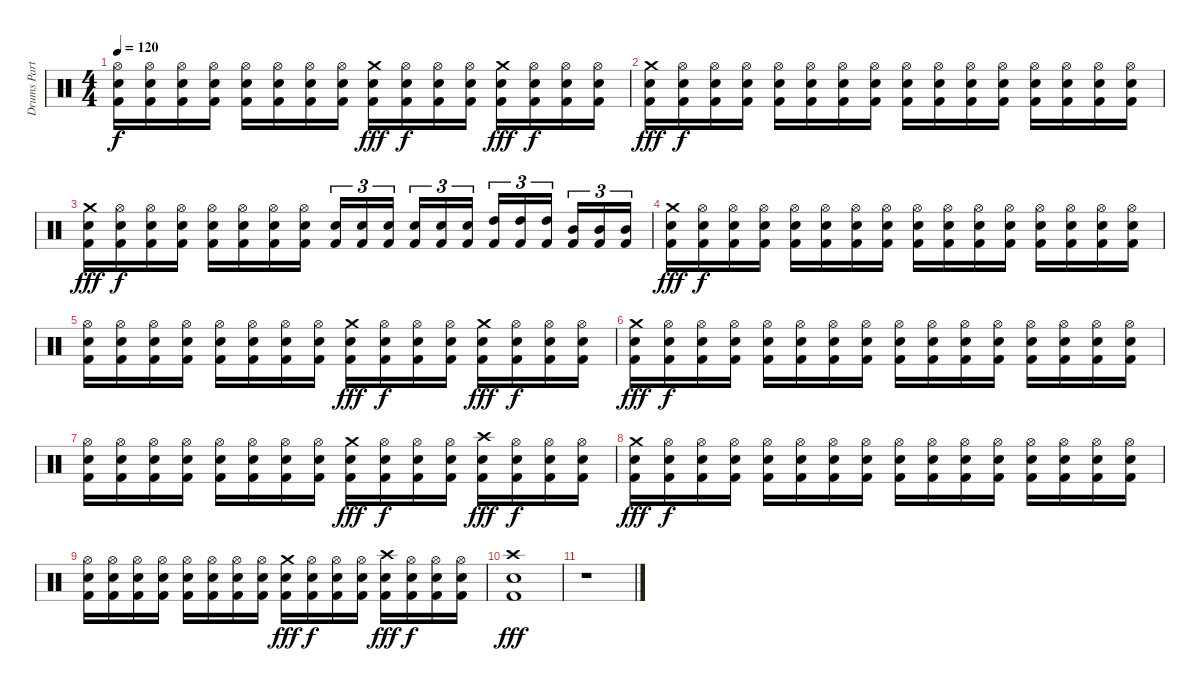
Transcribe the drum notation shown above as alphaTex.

\track ("Drums Part" "Drums Part") {instrument percussion}
\staff {score}
\articulation defaults
\ts (4 4)
\tempo 120
\clef neutral
\ks c
("Hi-Hat (open)" "Electric Snare (hit)" "Kick (hit) 2").16{dy f} ("Hi-Hat (open)" "Electric Snare (hit)" "Kick (hit) 2").16 ("Hi-Hat (open)" "Electric Snare (hit)" "Kick (hit) 2").16 ("Hi-Hat (open)" "Electric Snare (hit)" "Kick (hit) 2").16 ("Hi-Hat (open)" "Electric Snare (hit)" "Kick (hit) 2").16 ("Hi-Hat (open)" "Electric Snare (hit)" "Kick (hit) 2").16 ("Hi-Hat (open)" "Electric Snare (hit)" "Kick (hit) 2").16 ("Hi-Hat (open)" "Electric Snare (hit)" "Kick (hit) 2").16 ("Crash medium (hit)" "Electric Snare (hit)" "Kick (hit) 2").16{dy fff} ("Hi-Hat (open)" "Electric Snare (hit)" "Kick (hit) 2").16{dy f} ("Hi-Hat (open)" "Electric Snare (hit)" "Kick (hit) 2").16 ("Hi-Hat (open)" "Electric Snare (hit)" "Kick (hit) 2").16 ("Crash medium (hit)" "Electric Snare (hit)" "Kick (hit) 2").16{dy fff} ("Hi-Hat (open)" "Electric Snare (hit)" "Kick (hit) 2").16{dy f} ("Hi-Hat (open)" "Electric Snare (hit)" "Kick (hit) 2").16 ("Hi-Hat (open)" "Electric Snare (hit)" "Kick (hit) 2").16 |
("Crash medium (hit)" "Electric Snare (hit)" "Kick (hit) 2").16{dy fff} ("Hi-Hat (open)" "Electric Snare (hit)" "Kick (hit) 2").16{dy f} ("Hi-Hat (open)" "Electric Snare (hit)" "Kick (hit) 2").16 ("Hi-Hat (open)" "Electric Snare (hit)" "Kick (hit) 2").16 ("Hi-Hat (open)" "Electric Snare (hit)" "Kick (hit) 2").16 ("Hi-Hat (open)" "Electric Snare (hit)" "Kick (hit) 2").16 ("Hi-Hat (open)" "Electric Snare (hit)" "Kick (hit) 2").16 ("Hi-Hat (open)" "Electric Snare (hit)" "Kick (hit) 2").16 ("Hi-Hat (open)" "Electric Snare (hit)" "Kick (hit) 2").16 ("Hi-Hat (open)" "Electric Snare (hit)" "Kick (hit) 2").16 ("Hi-Hat (open)" "Electric Snare (hit)" "Kick (hit) 2").16 ("Hi-Hat (open)" "Electric Snare (hit)" "Kick (hit) 2").16 ("Hi-Hat (open)" "Electric Snare (hit)" "Kick (hit) 2").16 ("Hi-Hat (open)" "Electric Snare (hit)" "Kick (hit) 2").16 ("Hi-Hat (open)" "Electric Snare (hit)" "Kick (hit) 2").16 ("Hi-Hat (open)" "Electric Snare (hit)" "Kick (hit) 2").16 |
("Crash medium (hit)" "Electric Snare (hit)" "Kick (hit) 2").16{dy fff} ("Hi-Hat (open)" "Electric Snare (hit)" "Kick (hit) 2").16{dy f} ("Hi-Hat (open)" "Electric Snare (hit)" "Kick (hit) 2").16 ("Hi-Hat (open)" "Electric Snare (hit)" "Kick (hit) 2").16 ("Hi-Hat (open)" "Electric Snare (hit)" "Kick (hit) 2").16 ("Hi-Hat (open)" "Electric Snare (hit)" "Kick (hit) 2").16 ("Hi-Hat (open)" "Electric Snare (hit)" "Kick (hit) 2").16 ("Hi-Hat (open)" "Electric Snare (hit)" "Kick (hit) 2").16 ("Electric Snare (hit)" "Kick (hit) 2").16{tu (3 2)} ("Electric Snare (hit)" "Kick (hit) 2").16{tu (3 2)} ("Electric Snare (hit)" "Kick (hit) 2").16{tu (3 2)} ("Electric Snare (hit)" "Kick (hit) 2").16{tu (3 2)} ("Electric Snare (hit)" "Kick (hit) 2").16{tu (3 2)} ("Electric Snare (hit)" "Kick (hit) 2").16{tu (3 2)} ("High Tom (hit)" "Kick (hit) 2").16{tu (3 2)} ("High Tom (hit)" "Kick (hit) 2").16{tu (3 2)} ("High Tom (hit)" "Kick (hit) 2").16{tu (3 2)} ("Mid Tom (hit)" "Kick (hit) 2").16{tu (3 2)} ("Mid Tom (hit)" "Kick (hit) 2").16{tu (3 2)} ("Mid Tom (hit)" "Kick (hit) 2").16{tu (3 2)} |
("Crash medium (hit)" "Electric Snare (hit)" "Kick (hit) 2").16{dy fff} ("Hi-Hat (open)" "Electric Snare (hit)" "Kick (hit) 2").16{dy f} ("Hi-Hat (open)" "Electric Snare (hit)" "Kick (hit) 2").16 ("Hi-Hat (open)" "Electric Snare (hit)" "Kick (hit) 2").16 ("Hi-Hat (open)" "Electric Snare (hit)" "Kick (hit) 2").16 ("Hi-Hat (open)" "Electric Snare (hit)" "Kick (hit) 2").16 ("Hi-Hat (open)" "Electric Snare (hit)" "Kick (hit) 2").16 ("Hi-Hat (open)" "Electric Snare (hit)" "Kick (hit) 2").16 ("Hi-Hat (open)" "Electric Snare (hit)" "Kick (hit) 2").16 ("Hi-Hat (open)" "Electric Snare (hit)" "Kick (hit) 2").16 ("Hi-Hat (open)" "Electric Snare (hit)" "Kick (hit) 2").16 ("Hi-Hat (open)" "Electric Snare (hit)" "Kick (hit) 2").16 ("Hi-Hat (open)" "Electric Snare (hit)" "Kick (hit) 2").16 ("Hi-Hat (open)" "Electric Snare (hit)" "Kick (hit) 2").16 ("Hi-Hat (open)" "Electric Snare (hit)" "Kick (hit) 2").16 ("Hi-Hat (open)" "Electric Snare (hit)" "Kick (hit) 2").16 |
("Hi-Hat (open)" "Electric Snare (hit)" "Kick (hit) 2").16 ("Hi-Hat (open)" "Electric Snare (hit)" "Kick (hit) 2").16 ("Hi-Hat (open)" "Electric Snare (hit)" "Kick (hit) 2").16 ("Hi-Hat (open)" "Electric Snare (hit)" "Kick (hit) 2").16 ("Hi-Hat (open)" "Electric Snare (hit)" "Kick (hit) 2").16 ("Hi-Hat (open)" "Electric Snare (hit)" "Kick (hit) 2").16 ("Hi-Hat (open)" "Electric Snare (hit)" "Kick (hit) 2").16 ("Hi-Hat (open)" "Electric Snare (hit)" "Kick (hit) 2").16 ("Crash medium (hit)" "Electric Snare (hit)" "Kick (hit) 2").16{dy fff} ("Hi-Hat (open)" "Electric Snare (hit)" "Kick (hit) 2").16{dy f} ("Hi-Hat (open)" "Electric Snare (hit)" "Kick (hit) 2").16 ("Hi-Hat (open)" "Electric Snare (hit)" "Kick (hit) 2").16 ("Crash medium (hit)" "Electric Snare (hit)" "Kick (hit) 2").16{dy fff} ("Hi-Hat (open)" "Electric Snare (hit)" "Kick (hit) 2").16{dy f} ("Hi-Hat (open)" "Electric Snare (hit)" "Kick (hit) 2").16 ("Hi-Hat (open)" "Electric Snare (hit)" "Kick (hit) 2").16 |
("Crash medium (hit)" "Electric Snare (hit)" "Kick (hit) 2").16{dy fff} ("Hi-Hat (open)" "Electric Snare (hit)" "Kick (hit) 2").16{dy f} ("Hi-Hat (open)" "Electric Snare (hit)" "Kick (hit) 2").16 ("Hi-Hat (open)" "Electric Snare (hit)" "Kick (hit) 2").16 ("Hi-Hat (open)" "Electric Snare (hit)" "Kick (hit) 2").16 ("Hi-Hat (open)" "Electric Snare (hit)" "Kick (hit) 2").16 ("Hi-Hat (open)" "Electric Snare (hit)" "Kick (hit) 2").16 ("Hi-Hat (open)" "Electric Snare (hit)" "Kick (hit) 2").16 ("Hi-Hat (open)" "Electric Snare (hit)" "Kick (hit) 2").16 ("Hi-Hat (open)" "Electric Snare (hit)" "Kick (hit) 2").16 ("Hi-Hat (open)" "Electric Snare (hit)" "Kick (hit) 2").16 ("Hi-Hat (open)" "Electric Snare (hit)" "Kick (hit) 2").16 ("Hi-Hat (open)" "Electric Snare (hit)" "Kick (hit) 2").16 ("Hi-Hat (open)" "Electric Snare (hit)" "Kick (hit) 2").16 ("Hi-Hat (open)" "Electric Snare (hit)" "Kick (hit) 2").16 ("Hi-Hat (open)" "Electric Snare (hit)" "Kick (hit) 2").16 |
("Hi-Hat (open)" "Electric Snare (hit)" "Kick (hit) 2").16 ("Hi-Hat (open)" "Electric Snare (hit)" "Kick (hit) 2").16 ("Hi-Hat (open)" "Electric Snare (hit)" "Kick (hit) 2").16 ("Hi-Hat (open)" "Electric Snare (hit)" "Kick (hit) 2").16 ("Hi-Hat (open)" "Electric Snare (hit)" "Kick (hit) 2").16 ("Hi-Hat (open)" "Electric Snare (hit)" "Kick (hit) 2").16 ("Hi-Hat (open)" "Electric Snare (hit)" "Kick (hit) 2").16 ("Hi-Hat (open)" "Electric Snare (hit)" "Kick (hit) 2").16 ("Crash medium (hit)" "Electric Snare (hit)" "Kick (hit) 2").16{dy fff} ("Hi-Hat (open)" "Electric Snare (hit)" "Kick (hit) 2").16{dy f} ("Hi-Hat (open)" "Electric Snare (hit)" "Kick (hit) 2").16 ("Hi-Hat (open)" "Electric Snare (hit)" "Kick (hit) 2").16 ("Crash high (hit)" "Electric Snare (hit)" "Kick (hit) 2").16{dy fff} ("Hi-Hat (open)" "Electric Snare (hit)" "Kick (hit) 2").16{dy f} ("Hi-Hat (open)" "Electric Snare (hit)" "Kick (hit) 2").16 ("Hi-Hat (open)" "Electric Snare (hit)" "Kick (hit) 2").16 |
("Crash medium (hit)" "Electric Snare (hit)" "Kick (hit) 2").16{dy fff} ("Hi-Hat (open)" "Electric Snare (hit)" "Kick (hit) 2").16{dy f} ("Hi-Hat (open)" "Electric Snare (hit)" "Kick (hit) 2").16 ("Hi-Hat (open)" "Electric Snare (hit)" "Kick (hit) 2").16 ("Hi-Hat (open)" "Electric Snare (hit)" "Kick (hit) 2").16 ("Hi-Hat (open)" "Electric Snare (hit)" "Kick (hit) 2").16 ("Hi-Hat (open)" "Electric Snare (hit)" "Kick (hit) 2").16 ("Hi-Hat (open)" "Electric Snare (hit)" "Kick (hit) 2").16 ("Hi-Hat (open)" "Electric Snare (hit)" "Kick (hit) 2").16 ("Hi-Hat (open)" "Electric Snare (hit)" "Kick (hit) 2").16 ("Hi-Hat (open)" "Electric Snare (hit)" "Kick (hit) 2").16 ("Hi-Hat (open)" "Electric Snare (hit)" "Kick (hit) 2").16 ("Hi-Hat (open)" "Electric Snare (hit)" "Kick (hit) 2").16 ("Hi-Hat (open)" "Electric Snare (hit)" "Kick (hit) 2").16 ("Hi-Hat (open)" "Electric Snare (hit)" "Kick (hit) 2").16 ("Hi-Hat (open)" "Electric Snare (hit)" "Kick (hit) 2").16 |
("Hi-Hat (open)" "Electric Snare (hit)" "Kick (hit) 2").16 ("Hi-Hat (open)" "Electric Snare (hit)" "Kick (hit) 2").16 ("Hi-Hat (open)" "Electric Snare (hit)" "Kick (hit) 2").16 ("Hi-Hat (open)" "Electric Snare (hit)" "Kick (hit) 2").16 ("Hi-Hat (open)" "Electric Snare (hit)" "Kick (hit) 2").16 ("Hi-Hat (open)" "Electric Snare (hit)" "Kick (hit) 2").16 ("Hi-Hat (open)" "Electric Snare (hit)" "Kick (hit) 2").16 ("Hi-Hat (open)" "Electric Snare (hit)" "Kick (hit) 2").16 ("Crash medium (hit)" "Electric Snare (hit)" "Kick (hit) 2").16{dy fff} ("Hi-Hat (open)" "Electric Snare (hit)" "Kick (hit) 2").16{dy f} ("Hi-Hat (open)" "Electric Snare (hit)" "Kick (hit) 2").16 ("Hi-Hat (open)" "Electric Snare (hit)" "Kick (hit) 2").16 ("Crash high (hit)" "Electric Snare (hit)" "Kick (hit) 2").16{dy fff} ("Hi-Hat (open)" "Electric Snare (hit)" "Kick (hit) 2").16{dy f} ("Hi-Hat (open)" "Electric Snare (hit)" "Kick (hit) 2").16 ("Hi-Hat (open)" "Electric Snare (hit)" "Kick (hit) 2").16 |
("Crash high (hit)" "Electric Snare (hit)" "Kick (hit) 2").1{dy fff} |
r.1
